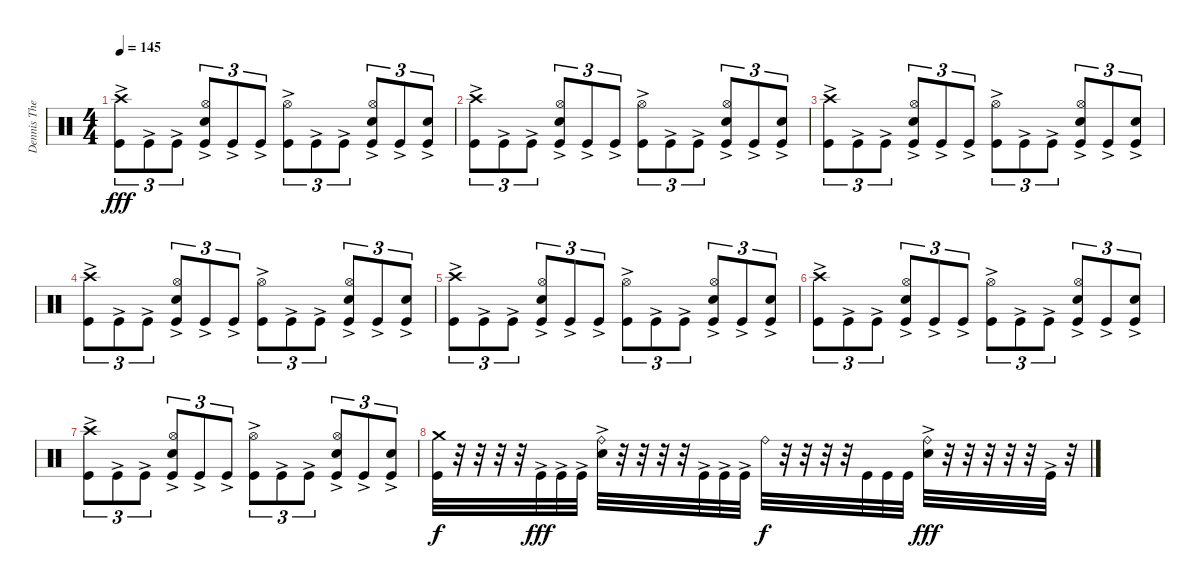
\track ("Dennis The Menace" "Dennis The") {instrument percussion}
\staff {score}
\articulation defaults
\ts (4 4)
\tempo 145
\clef neutral
\ks c
("Crash high (hit)" "Kick (hit)"{ac}).8{tu (3 2) dy fff} "Kick (hit)"{ac}.8{tu (3 2)} "Kick (hit)"{ac}.8{tu (3 2)} ("Hi-Hat (open)" "Electric Snare (hit)"{ac} "Kick (hit)"{ac}).8{tu (3 2)} "Kick (hit)"{ac}.8{tu (3 2)} "Kick (hit)"{ac}.8{tu (3 2)} ("Hi-Hat (open)" "Kick (hit)"{ac}).8{tu (3 2)} "Kick (hit)"{ac}.8{tu (3 2)} "Kick (hit)"{ac}.8{tu (3 2)} ("Hi-Hat (open)" "Electric Snare (hit)"{ac} "Kick (hit)"{ac}).8{tu (3 2)} "Kick (hit)"{ac}.8{tu (3 2)} ("Electric Snare (hit)"{ac} "Kick (hit)"{ac}).8{tu (3 2)} |
("Crash high (hit)" "Kick (hit)"{ac}).8{tu (3 2)} "Kick (hit)"{ac}.8{tu (3 2)} "Kick (hit)"{ac}.8{tu (3 2)} ("Hi-Hat (open)" "Electric Snare (hit)"{ac} "Kick (hit)"{ac}).8{tu (3 2)} "Kick (hit)"{ac}.8{tu (3 2)} "Kick (hit)"{ac}.8{tu (3 2)} ("Hi-Hat (open)" "Kick (hit)"{ac}).8{tu (3 2)} "Kick (hit)"{ac}.8{tu (3 2)} "Kick (hit)"{ac}.8{tu (3 2)} ("Hi-Hat (open)" "Electric Snare (hit)"{ac} "Kick (hit)"{ac}).8{tu (3 2)} "Kick (hit)"{ac}.8{tu (3 2)} ("Electric Snare (hit)"{ac} "Kick (hit)"{ac}).8{tu (3 2)} |
("Crash high (hit)" "Kick (hit)"{ac}).8{tu (3 2)} "Kick (hit)"{ac}.8{tu (3 2)} "Kick (hit)"{ac}.8{tu (3 2)} ("Hi-Hat (open)" "Electric Snare (hit)"{ac} "Kick (hit)"{ac}).8{tu (3 2)} "Kick (hit)"{ac}.8{tu (3 2)} "Kick (hit)"{ac}.8{tu (3 2)} ("Hi-Hat (open)" "Kick (hit)"{ac}).8{tu (3 2)} "Kick (hit)"{ac}.8{tu (3 2)} "Kick (hit)"{ac}.8{tu (3 2)} ("Hi-Hat (open)" "Electric Snare (hit)"{ac} "Kick (hit)"{ac}).8{tu (3 2)} "Kick (hit)"{ac}.8{tu (3 2)} ("Electric Snare (hit)"{ac} "Kick (hit)"{ac}).8{tu (3 2)} |
("Crash high (hit)" "Kick (hit)"{ac}).8{tu (3 2)} "Kick (hit)"{ac}.8{tu (3 2)} "Kick (hit)"{ac}.8{tu (3 2)} ("Hi-Hat (open)" "Electric Snare (hit)"{ac} "Kick (hit)"{ac}).8{tu (3 2)} "Kick (hit)"{ac}.8{tu (3 2)} "Kick (hit)"{ac}.8{tu (3 2)} ("Hi-Hat (open)" "Kick (hit)"{ac}).8{tu (3 2)} "Kick (hit)"{ac}.8{tu (3 2)} "Kick (hit)"{ac}.8{tu (3 2)} ("Hi-Hat (open)" "Electric Snare (hit)"{ac} "Kick (hit)"{ac}).8{tu (3 2)} "Kick (hit)"{ac}.8{tu (3 2)} ("Electric Snare (hit)"{ac} "Kick (hit)"{ac}).8{tu (3 2)} |
("Crash high (hit)" "Kick (hit)"{ac}).8{tu (3 2)} "Kick (hit)"{ac}.8{tu (3 2)} "Kick (hit)"{ac}.8{tu (3 2)} ("Hi-Hat (open)" "Electric Snare (hit)"{ac} "Kick (hit)"{ac}).8{tu (3 2)} "Kick (hit)"{ac}.8{tu (3 2)} "Kick (hit)"{ac}.8{tu (3 2)} ("Hi-Hat (open)" "Kick (hit)"{ac}).8{tu (3 2)} "Kick (hit)"{ac}.8{tu (3 2)} "Kick (hit)"{ac}.8{tu (3 2)} ("Hi-Hat (open)" "Electric Snare (hit)"{ac} "Kick (hit)"{ac}).8{tu (3 2)} "Kick (hit)"{ac}.8{tu (3 2)} ("Electric Snare (hit)"{ac} "Kick (hit)"{ac}).8{tu (3 2)} |
("Crash high (hit)" "Kick (hit)"{ac}).8{tu (3 2)} "Kick (hit)"{ac}.8{tu (3 2)} "Kick (hit)"{ac}.8{tu (3 2)} ("Hi-Hat (open)" "Electric Snare (hit)"{ac} "Kick (hit)"{ac}).8{tu (3 2)} "Kick (hit)"{ac}.8{tu (3 2)} "Kick (hit)"{ac}.8{tu (3 2)} ("Hi-Hat (open)" "Kick (hit)"{ac}).8{tu (3 2)} "Kick (hit)"{ac}.8{tu (3 2)} "Kick (hit)"{ac}.8{tu (3 2)} ("Hi-Hat (open)" "Electric Snare (hit)"{ac} "Kick (hit)"{ac}).8{tu (3 2)} "Kick (hit)"{ac}.8{tu (3 2)} ("Electric Snare (hit)"{ac} "Kick (hit)"{ac}).8{tu (3 2)} |
("Crash high (hit)" "Kick (hit)"{ac}).8{tu (3 2)} "Kick (hit)"{ac}.8{tu (3 2)} "Kick (hit)"{ac}.8{tu (3 2)} ("Hi-Hat (open)" "Electric Snare (hit)"{ac} "Kick (hit)"{ac}).8{tu (3 2)} "Kick (hit)"{ac}.8{tu (3 2)} "Kick (hit)"{ac}.8{tu (3 2)} ("Hi-Hat (open)" "Kick (hit)"{ac}).8{tu (3 2)} "Kick (hit)"{ac}.8{tu (3 2)} "Kick (hit)"{ac}.8{tu (3 2)} ("Hi-Hat (open)" "Electric Snare (hit)"{ac} "Kick (hit)"{ac}).8{tu (3 2)} "Kick (hit)"{ac}.8{tu (3 2)} ("Electric Snare (hit)"{ac} "Kick (hit)"{ac}).8{tu (3 2)} |
("Crash medium (hit)" "Kick (hit)").32{dy f} r.32 r.32 r.32 r.32 "Kick (hit)"{ac}.32{dy fff} "Kick (hit)"{ac}.32 "Kick (hit)"{ac}.32 ("Ride (bell)" "Electric Snare (hit)"{ac}).32 r.32 r.32 r.32 r.32 "Kick (hit)"{ac}.32 "Kick (hit)"{ac}.32 "Kick (hit)"{ac}.32 "Ride (bell)".32{dy f} r.32 r.32 r.32 r.32 "Kick (hit)".32 "Kick (hit)".32 "Kick (hit)".32 ("Ride (bell)" "Electric Snare (hit)"{ac}).32{dy fff} r.32 r.32 r.32 r.32 r.32 "Kick (hit)"{ac}.32 r.32
